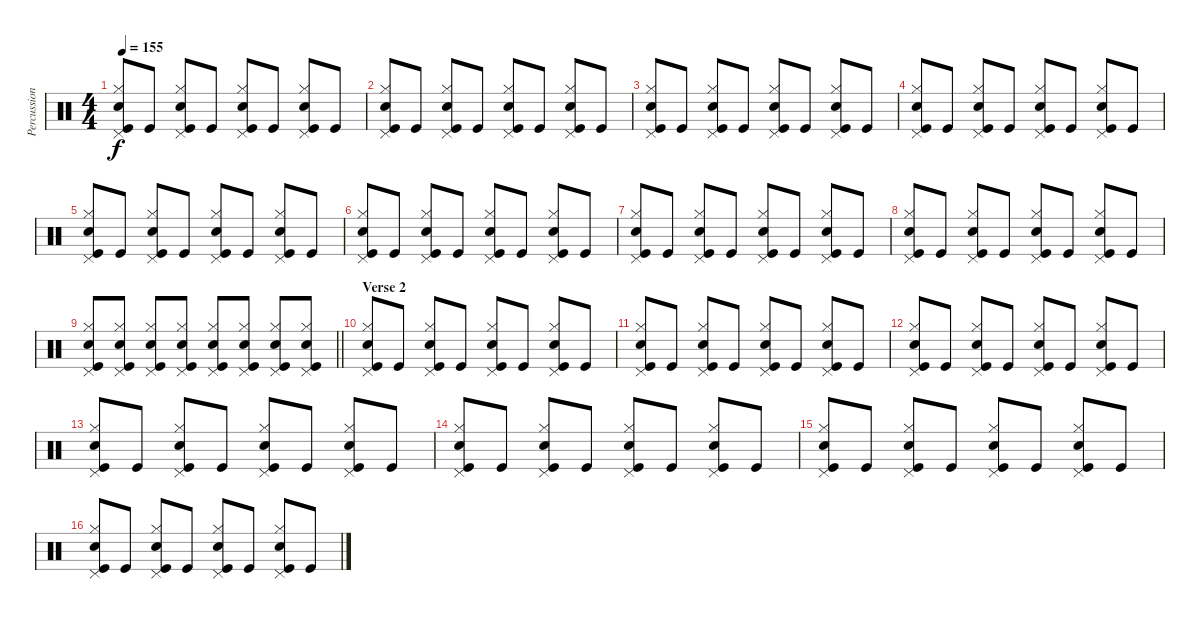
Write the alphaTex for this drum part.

\track ("Percussions" "Percussion") {instrument percussion}
\staff {score}
\articulation defaults
\ts (4 4)
\tempo 155
\clef neutral
\ks c
("Snare (hit) 2" "Hi-Hat (closed)" "Pedal Hi-Hat (hit)" "Kick (hit)").8{dy f} "Kick (hit)".8 ("Snare (hit) 2" "Hi-Hat (closed)" "Pedal Hi-Hat (hit)" "Kick (hit)").8 "Kick (hit)".8 ("Snare (hit) 2" "Hi-Hat (closed)" "Pedal Hi-Hat (hit)" "Kick (hit)").8 "Kick (hit)".8 ("Snare (hit) 2" "Hi-Hat (closed)" "Pedal Hi-Hat (hit)" "Kick (hit)").8 "Kick (hit)".8 |
("Snare (hit) 2" "Hi-Hat (closed)" "Pedal Hi-Hat (hit)" "Kick (hit)").8 "Kick (hit)".8 ("Snare (hit) 2" "Hi-Hat (closed)" "Pedal Hi-Hat (hit)" "Kick (hit)").8 "Kick (hit)".8 ("Snare (hit) 2" "Hi-Hat (closed)" "Pedal Hi-Hat (hit)" "Kick (hit)").8 "Kick (hit)".8 ("Snare (hit) 2" "Hi-Hat (closed)" "Pedal Hi-Hat (hit)" "Kick (hit)").8 "Kick (hit)".8 |
("Snare (hit) 2" "Hi-Hat (closed)" "Pedal Hi-Hat (hit)" "Kick (hit)").8 "Kick (hit)".8 ("Snare (hit) 2" "Hi-Hat (closed)" "Pedal Hi-Hat (hit)" "Kick (hit)").8 "Kick (hit)".8 ("Snare (hit) 2" "Hi-Hat (closed)" "Pedal Hi-Hat (hit)" "Kick (hit)").8 "Kick (hit)".8 ("Snare (hit) 2" "Hi-Hat (closed)" "Pedal Hi-Hat (hit)" "Kick (hit)").8 "Kick (hit)".8 |
("Snare (hit) 2" "Hi-Hat (closed)" "Pedal Hi-Hat (hit)" "Kick (hit)").8 "Kick (hit)".8 ("Snare (hit) 2" "Hi-Hat (closed)" "Pedal Hi-Hat (hit)" "Kick (hit)").8 "Kick (hit)".8 ("Snare (hit) 2" "Hi-Hat (closed)" "Pedal Hi-Hat (hit)" "Kick (hit)").8 "Kick (hit)".8 ("Snare (hit) 2" "Hi-Hat (closed)" "Pedal Hi-Hat (hit)" "Kick (hit)").8 "Kick (hit)".8 |
("Snare (hit) 2" "Hi-Hat (closed)" "Pedal Hi-Hat (hit)" "Kick (hit)").8 "Kick (hit)".8 ("Snare (hit) 2" "Hi-Hat (closed)" "Pedal Hi-Hat (hit)" "Kick (hit)").8 "Kick (hit)".8 ("Snare (hit) 2" "Hi-Hat (closed)" "Pedal Hi-Hat (hit)" "Kick (hit)").8 "Kick (hit)".8 ("Snare (hit) 2" "Hi-Hat (closed)" "Pedal Hi-Hat (hit)" "Kick (hit)").8 "Kick (hit)".8 |
("Snare (hit) 2" "Hi-Hat (closed)" "Pedal Hi-Hat (hit)" "Kick (hit)").8 "Kick (hit)".8 ("Snare (hit) 2" "Hi-Hat (closed)" "Pedal Hi-Hat (hit)" "Kick (hit)").8 "Kick (hit)".8 ("Snare (hit) 2" "Hi-Hat (closed)" "Pedal Hi-Hat (hit)" "Kick (hit)").8 "Kick (hit)".8 ("Snare (hit) 2" "Hi-Hat (closed)" "Pedal Hi-Hat (hit)" "Kick (hit)").8 "Kick (hit)".8 |
("Snare (hit) 2" "Hi-Hat (closed)" "Pedal Hi-Hat (hit)" "Kick (hit)").8 "Kick (hit)".8 ("Snare (hit) 2" "Hi-Hat (closed)" "Pedal Hi-Hat (hit)" "Kick (hit)").8 "Kick (hit)".8 ("Snare (hit) 2" "Hi-Hat (closed)" "Pedal Hi-Hat (hit)" "Kick (hit)").8 "Kick (hit)".8 ("Snare (hit) 2" "Hi-Hat (closed)" "Pedal Hi-Hat (hit)" "Kick (hit)").8 "Kick (hit)".8 |
("Snare (hit) 2" "Hi-Hat (closed)" "Pedal Hi-Hat (hit)" "Kick (hit)").8 "Kick (hit)".8 ("Snare (hit) 2" "Hi-Hat (closed)" "Pedal Hi-Hat (hit)" "Kick (hit)").8 "Kick (hit)".8 ("Snare (hit) 2" "Hi-Hat (closed)" "Pedal Hi-Hat (hit)" "Kick (hit)").8 "Kick (hit)".8 ("Snare (hit) 2" "Hi-Hat (closed)" "Pedal Hi-Hat (hit)" "Kick (hit)").8 "Kick (hit)".8 |
\barLineRight lightlight
("Snare (hit) 2" "Hi-Hat (closed)" "Pedal Hi-Hat (hit)" "Kick (hit)").8 ("Snare (hit) 2" "Hi-Hat (closed)" "Pedal Hi-Hat (hit)" "Kick (hit)").8 ("Snare (hit) 2" "Hi-Hat (closed)" "Pedal Hi-Hat (hit)" "Kick (hit)").8 ("Snare (hit) 2" "Hi-Hat (closed)" "Pedal Hi-Hat (hit)" "Kick (hit)").8 ("Snare (hit) 2" "Hi-Hat (closed)" "Pedal Hi-Hat (hit)" "Kick (hit)").8 ("Snare (hit) 2" "Hi-Hat (closed)" "Pedal Hi-Hat (hit)" "Kick (hit)").8 ("Snare (hit) 2" "Hi-Hat (closed)" "Pedal Hi-Hat (hit)" "Kick (hit)").8 ("Snare (hit) 2" "Hi-Hat (closed)" "Pedal Hi-Hat (hit)" "Kick (hit)").8 |
\section ("" "Verse 2")
("Snare (hit) 2" "Hi-Hat (closed)" "Pedal Hi-Hat (hit)" "Kick (hit)").8 "Kick (hit)".8 ("Snare (hit) 2" "Hi-Hat (closed)" "Pedal Hi-Hat (hit)" "Kick (hit)").8 "Kick (hit)".8 ("Snare (hit) 2" "Hi-Hat (closed)" "Pedal Hi-Hat (hit)" "Kick (hit)").8 "Kick (hit)".8 ("Snare (hit) 2" "Hi-Hat (closed)" "Pedal Hi-Hat (hit)" "Kick (hit)").8 "Kick (hit)".8 |
("Snare (hit) 2" "Hi-Hat (closed)" "Pedal Hi-Hat (hit)" "Kick (hit)").8 "Kick (hit)".8 ("Snare (hit) 2" "Hi-Hat (closed)" "Pedal Hi-Hat (hit)" "Kick (hit)").8 "Kick (hit)".8 ("Snare (hit) 2" "Hi-Hat (closed)" "Pedal Hi-Hat (hit)" "Kick (hit)").8 "Kick (hit)".8 ("Snare (hit) 2" "Hi-Hat (closed)" "Pedal Hi-Hat (hit)" "Kick (hit)").8 "Kick (hit)".8 |
("Snare (hit) 2" "Hi-Hat (closed)" "Pedal Hi-Hat (hit)" "Kick (hit)").8 "Kick (hit)".8 ("Snare (hit) 2" "Hi-Hat (closed)" "Pedal Hi-Hat (hit)" "Kick (hit)").8 "Kick (hit)".8 ("Snare (hit) 2" "Hi-Hat (closed)" "Pedal Hi-Hat (hit)" "Kick (hit)").8 "Kick (hit)".8 ("Snare (hit) 2" "Hi-Hat (closed)" "Pedal Hi-Hat (hit)" "Kick (hit)").8 "Kick (hit)".8 |
("Snare (hit) 2" "Hi-Hat (closed)" "Pedal Hi-Hat (hit)" "Kick (hit)").8 "Kick (hit)".8 ("Snare (hit) 2" "Hi-Hat (closed)" "Pedal Hi-Hat (hit)" "Kick (hit)").8 "Kick (hit)".8 ("Snare (hit) 2" "Hi-Hat (closed)" "Pedal Hi-Hat (hit)" "Kick (hit)").8 "Kick (hit)".8 ("Snare (hit) 2" "Hi-Hat (closed)" "Pedal Hi-Hat (hit)" "Kick (hit)").8 "Kick (hit)".8 |
("Snare (hit) 2" "Hi-Hat (closed)" "Pedal Hi-Hat (hit)" "Kick (hit)").8 "Kick (hit)".8 ("Snare (hit) 2" "Hi-Hat (closed)" "Pedal Hi-Hat (hit)" "Kick (hit)").8 "Kick (hit)".8 ("Snare (hit) 2" "Hi-Hat (closed)" "Pedal Hi-Hat (hit)" "Kick (hit)").8 "Kick (hit)".8 ("Snare (hit) 2" "Hi-Hat (closed)" "Pedal Hi-Hat (hit)" "Kick (hit)").8 "Kick (hit)".8 |
("Snare (hit) 2" "Hi-Hat (closed)" "Pedal Hi-Hat (hit)" "Kick (hit)").8 "Kick (hit)".8 ("Snare (hit) 2" "Hi-Hat (closed)" "Pedal Hi-Hat (hit)" "Kick (hit)").8 "Kick (hit)".8 ("Snare (hit) 2" "Hi-Hat (closed)" "Pedal Hi-Hat (hit)" "Kick (hit)").8 "Kick (hit)".8 ("Snare (hit) 2" "Hi-Hat (closed)" "Pedal Hi-Hat (hit)" "Kick (hit)").8 "Kick (hit)".8 |
("Snare (hit) 2" "Hi-Hat (closed)" "Pedal Hi-Hat (hit)" "Kick (hit)").8 "Kick (hit)".8 ("Snare (hit) 2" "Hi-Hat (closed)" "Pedal Hi-Hat (hit)" "Kick (hit)").8 "Kick (hit)".8 ("Snare (hit) 2" "Hi-Hat (closed)" "Pedal Hi-Hat (hit)" "Kick (hit)").8 "Kick (hit)".8 ("Snare (hit) 2" "Hi-Hat (closed)" "Pedal Hi-Hat (hit)" "Kick (hit)").8 "Kick (hit)".8
